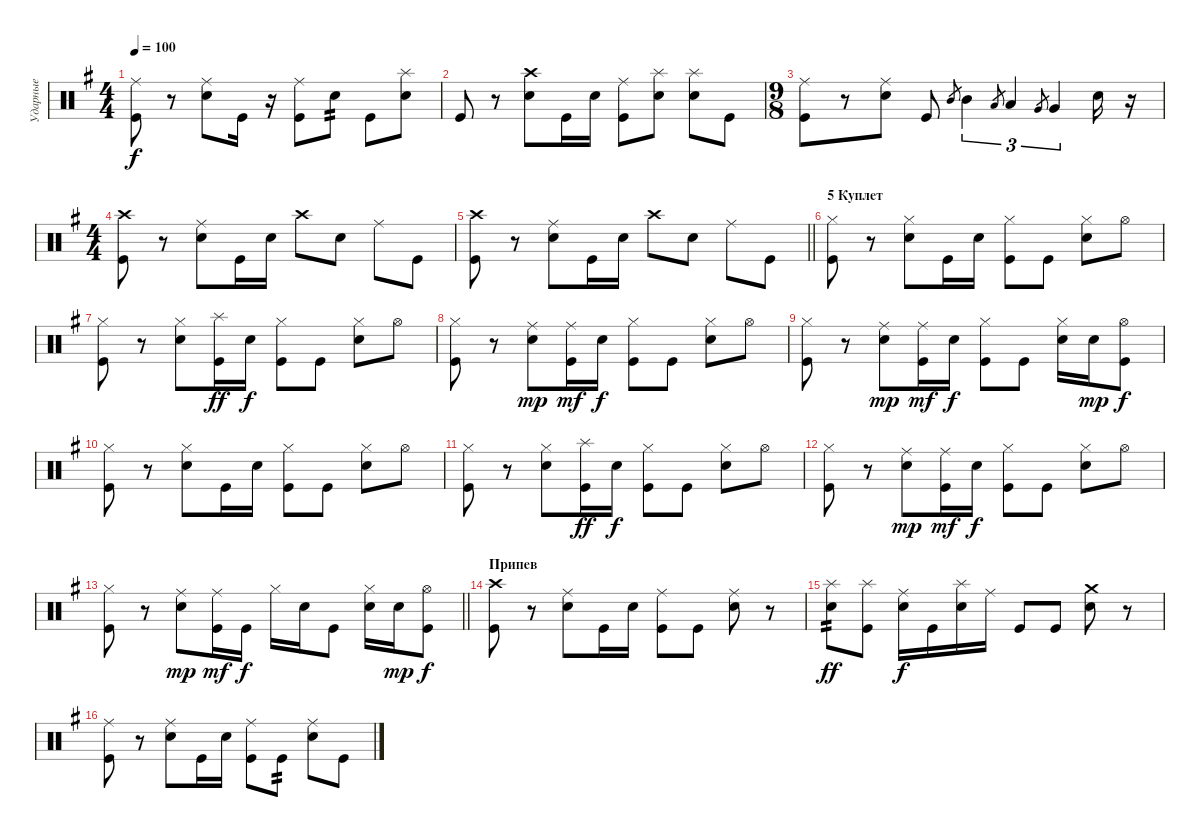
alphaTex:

\track ("Ударные" "Ударные") {instrument percussion}
\staff {score}
\articulation defaults
\ts (4 4)
\tempo 100
\clef neutral
\ks eminor
("Ride (middle)" "Kick (hit)").8{dy f} r.8 ("Ride (middle)" "Snare (hit) 2").8 "Kick (hit)".16 r.16 ("Ride (middle)" "Kick (hit)").8 "Snare (hit) 2".8{tp 2} "Kick (hit)".8 ("Splash (hit)" "Snare (hit) 2").8 |
"Kick (hit)".8 r.8 ("Crash high (hit)" "Snare (hit) 2").8 "Kick (hit)".16 "Snare (hit) 2".16 ("Ride (middle)" "Kick (hit)").8 ("Splash (hit)" "Snare (hit) 2").8 ("Splash (hit)" "Snare (hit) 2").8 "Kick (hit)".8 |
\ts (9 8)
("Ride (middle)" "Kick (hit)").8 r.8 ("Ride (middle)" "Snare (hit) 2").8 "Kick (hit)".8 "Mid Tom (hit)".8{gr} "Mid Tom (hit)".4{tu (3 2)} "Low Tom (hit)".8{gr} "Low Tom (hit)".4{tu (3 2)} "Very Low Tom (hit)".8{gr} "Very Low Tom (hit)".4{tu (3 2)} "Snare (hit) 2".16 r.16 |
\ts (4 4)
("Crash high (hit)" "Kick (hit)").8 r.8 ("Ride (middle)" "Snare (hit) 2").8 "Kick (hit)".16 "Snare (hit) 2".16 "Crash high (hit)".8 "Snare (hit) 2".8 "Ride (middle)".8 "Kick (hit)".8 |
\barLineRight lightlight
("Crash high (hit)" "Kick (hit)").8 r.8 ("Ride (middle)" "Snare (hit) 2").8 "Kick (hit)".16 "Snare (hit) 2".16 "Crash high (hit)".8 "Snare (hit) 2".8 "Ride (middle)".8 "Kick (hit)".8 |
\section ("" "5 Куплет")
("Hi-Hat (closed)" "Kick (hit)").8 r.8 ("Hi-Hat (closed)" "Electric Snare (hit)").8 "Kick (hit)".16 "Electric Snare (hit)".16 ("Hi-Hat (closed)" "Kick (hit)").8 "Kick (hit)".8 ("Hi-Hat (closed)" "Snare (hit) 2").8 "Hi-Hat (open)".8 |
("Hi-Hat (closed)" "Kick (hit)").8 r.8 ("Hi-Hat (closed)" "Electric Snare (hit)").8 ("Splash (hit)" "Kick (hit)").16{dy ff} "Electric Snare (hit)".16{dy f} ("Hi-Hat (closed)" "Kick (hit)").8 "Kick (hit)".8 ("Hi-Hat (closed)" "Snare (hit) 2").8 "Hi-Hat (open)".8 |
("Hi-Hat (closed)" "Kick (hit)").8 r.8 ("Ride (middle)" "Electric Snare (hit)").8{dy mp} ("Ride (middle)" "Kick (hit)").16{dy mf} "Electric Snare (hit)".16{dy f} ("Hi-Hat (closed)" "Kick (hit)").8 "Kick (hit)".8 ("Hi-Hat (closed)" "Snare (hit) 2").8 "Hi-Hat (open)".8 |
("Hi-Hat (closed)" "Kick (hit)").8 r.8 ("Ride (middle)" "Electric Snare (hit)").8{dy mp} ("Ride (middle)" "Kick (hit)").16{dy mf} "Electric Snare (hit)".16{dy f} ("Hi-Hat (closed)" "Kick (hit)").8 "Kick (hit)".8 ("Hi-Hat (closed)" "Snare (hit) 2").16 "Snare (hit) 2".16{dy mp} ("Hi-Hat (open)" "Kick (hit)").8{dy f} |
("Hi-Hat (closed)" "Kick (hit)").8 r.8 ("Hi-Hat (closed)" "Electric Snare (hit)").8 "Kick (hit)".16 "Electric Snare (hit)".16 ("Hi-Hat (closed)" "Kick (hit)").8 "Kick (hit)".8 ("Hi-Hat (closed)" "Snare (hit) 2").8 "Hi-Hat (open)".8 |
("Hi-Hat (closed)" "Kick (hit)").8 r.8 ("Hi-Hat (closed)" "Electric Snare (hit)").8 ("Splash (hit)" "Kick (hit)").16{dy ff} "Electric Snare (hit)".16{dy f} ("Hi-Hat (closed)" "Kick (hit)").8 "Kick (hit)".8 ("Hi-Hat (closed)" "Snare (hit) 2").8 "Hi-Hat (open)".8 |
("Hi-Hat (closed)" "Kick (hit)").8 r.8 ("Ride (middle)" "Electric Snare (hit)").8{dy mp} ("Ride (middle)" "Kick (hit)").16{dy mf} "Electric Snare (hit)".16{dy f} ("Hi-Hat (closed)" "Kick (hit)").8 "Kick (hit)".8 ("Hi-Hat (closed)" "Snare (hit) 2").8 "Hi-Hat (open)".8 |
\barLineRight lightlight
("Hi-Hat (closed)" "Kick (hit)").8 r.8 ("Ride (middle)" "Electric Snare (hit)").8{dy mp} ("Ride (middle)" "Kick (hit)").16{dy mf} "Kick (hit)".16{dy f} "Hi-Hat (closed)".16 "Snare (hit) 2".16 "Kick (hit)".8 ("Hi-Hat (closed)" "Snare (hit) 2").16 "Snare (hit) 2".16{dy mp} ("Hi-Hat (open)" "Kick (hit)").8{dy f} |
\section ("" "Припев")
("Crash high (hit)" "Kick (hit)").8 r.8 ("Ride (middle)" "Snare (hit) 2").8 "Kick (hit)".16 "Snare (hit) 2".16 ("Ride (middle)" "Kick (hit)").8 "Kick (hit)".8 ("Ride (middle)" "Snare (hit) 2").8 r.8 |
("Splash (hit)" "Snare (hit) 2").8{tp 2 dy ff} ("Splash (hit)" "Kick (hit)").8 ("Ride (middle)" "Snare (hit) 2").16{dy f} "Kick (hit)".16 ("Splash (hit)" "Snare (hit) 2").16 "Ride (middle)".16 "Kick (hit)".8 "Kick (hit)".8 ("Crash medium (hit)" "Snare (hit) 2").8 r.8 |
("Ride (middle)" "Kick (hit)").8 r.8 ("Ride (middle)" "Snare (hit) 2").8 "Kick (hit)".16 "Snare (hit) 2".16 ("Ride (middle)" "Kick (hit)").8 "Kick (hit)".8{tp 2} ("Ride (middle)" "Snare (hit) 2").8 "Kick (hit)".8
